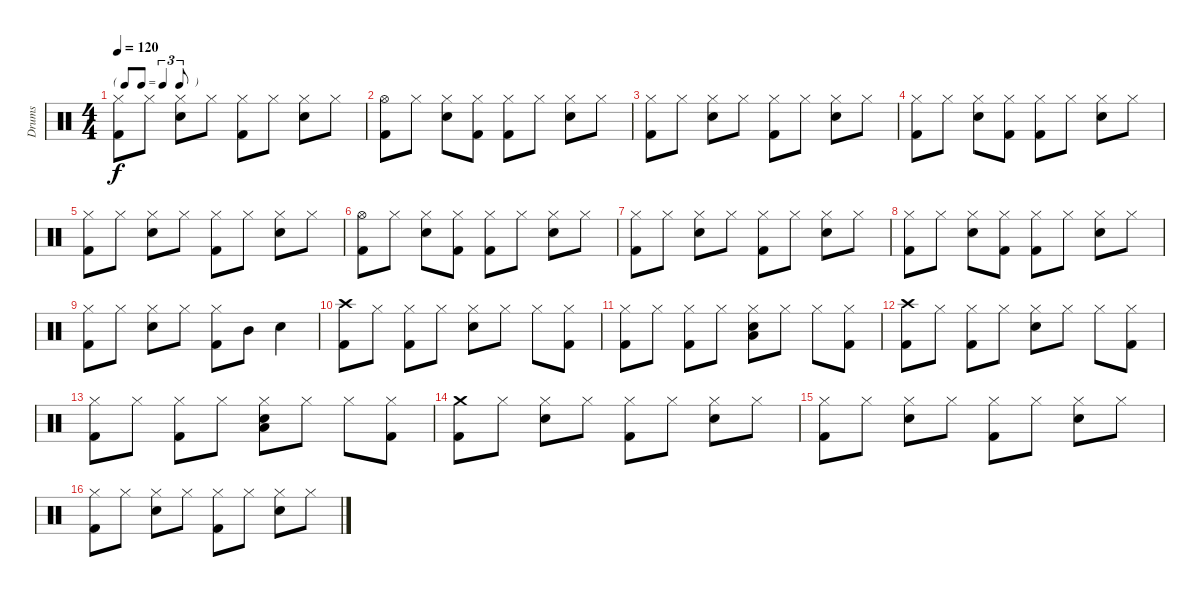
\track ("Drums" "Drums") {instrument percussion}
\staff {score}
\articulation defaults
\ts (4 4)
\tf triplet8th
\tempo 120
\clef neutral
\ks c
("Kick (hit) 2" "Hi-Hat (closed)").8{dy f} "Hi-Hat (closed)".8 ("Snare (hit) 2" "Hi-Hat (closed)").8 "Hi-Hat (closed)".8 ("Kick (hit) 2" "Hi-Hat (closed)").8 "Hi-Hat (closed)".8 ("Snare (hit) 2" "Hi-Hat (closed)").8 "Hi-Hat (closed)".8 |
("Kick (hit) 2" "Hi-Hat (open)").8 "Hi-Hat (closed)".8 ("Snare (hit) 2" "Hi-Hat (closed)").8 ("Kick (hit) 2" "Hi-Hat (closed)").8 ("Kick (hit) 2" "Hi-Hat (closed)").8 "Hi-Hat (closed)".8 ("Snare (hit) 2" "Hi-Hat (closed)").8 "Hi-Hat (closed)".8 |
("Kick (hit) 2" "Hi-Hat (closed)").8 "Hi-Hat (closed)".8 ("Snare (hit) 2" "Hi-Hat (closed)").8 "Hi-Hat (closed)".8 ("Kick (hit) 2" "Hi-Hat (closed)").8 "Hi-Hat (closed)".8 ("Snare (hit) 2" "Hi-Hat (closed)").8 "Hi-Hat (closed)".8 |
("Kick (hit) 2" "Hi-Hat (closed)").8 "Hi-Hat (closed)".8 ("Snare (hit) 2" "Hi-Hat (closed)").8 ("Kick (hit) 2" "Hi-Hat (closed)").8 ("Kick (hit) 2" "Hi-Hat (closed)").8 "Hi-Hat (closed)".8 ("Snare (hit) 2" "Hi-Hat (closed)").8 "Hi-Hat (closed)".8 |
("Kick (hit) 2" "Hi-Hat (closed)").8 "Hi-Hat (closed)".8 ("Snare (hit) 2" "Hi-Hat (closed)").8 "Hi-Hat (closed)".8 ("Kick (hit) 2" "Hi-Hat (closed)").8 "Hi-Hat (closed)".8 ("Snare (hit) 2" "Hi-Hat (closed)").8 "Hi-Hat (closed)".8 |
("Kick (hit) 2" "Hi-Hat (open)").8 "Hi-Hat (closed)".8 ("Snare (hit) 2" "Hi-Hat (closed)").8 ("Kick (hit) 2" "Hi-Hat (closed)").8 ("Kick (hit) 2" "Hi-Hat (closed)").8 "Hi-Hat (closed)".8 ("Snare (hit) 2" "Hi-Hat (closed)").8 "Hi-Hat (closed)".8 |
("Kick (hit) 2" "Hi-Hat (closed)").8 "Hi-Hat (closed)".8 ("Snare (hit) 2" "Hi-Hat (closed)").8 "Hi-Hat (closed)".8 ("Kick (hit) 2" "Hi-Hat (closed)").8 "Hi-Hat (closed)".8 ("Snare (hit) 2" "Hi-Hat (closed)").8 "Hi-Hat (closed)".8 |
("Kick (hit) 2" "Hi-Hat (closed)").8 "Hi-Hat (closed)".8 ("Snare (hit) 2" "Hi-Hat (closed)").8 ("Kick (hit) 2" "Hi-Hat (closed)").8 ("Kick (hit) 2" "Hi-Hat (closed)").8 "Hi-Hat (closed)".8 ("Snare (hit) 2" "Hi-Hat (closed)").8 "Hi-Hat (closed)".8 |
("Kick (hit) 2" "Hi-Hat (closed)").8 "Hi-Hat (closed)".8 ("Snare (hit) 2" "Hi-Hat (closed)").8 "Hi-Hat (closed)".8 ("Kick (hit) 2" "Hi-Hat (closed)").8 "Mid Tom (hit)".8 "Snare (hit) 2".4 |
("Kick (hit) 2" "Crash high (hit)").8 "Hi-Hat (closed)".8 ("Kick (hit) 2" "Hi-Hat (closed)").8 "Hi-Hat (closed)".8 ("Snare (hit) 2" "Hi-Hat (closed)").8 "Hi-Hat (closed)".8 "Hi-Hat (closed)".8 ("Kick (hit) 2" "Hi-Hat (closed)").8 |
("Kick (hit) 2" "Hi-Hat (closed)").8 "Hi-Hat (closed)".8 ("Kick (hit) 2" "Hi-Hat (closed)").8 "Hi-Hat (closed)".8 ("Snare (hit) 2" "Hi-Hat (closed)" "Low Tom (hit)").8 "Hi-Hat (closed)".8 "Hi-Hat (closed)".8 ("Kick (hit) 2" "Hi-Hat (closed)").8 |
("Kick (hit) 2" "Crash high (hit)").8 "Hi-Hat (closed)".8 ("Kick (hit) 2" "Hi-Hat (closed)").8 "Hi-Hat (closed)".8 ("Snare (hit) 2" "Hi-Hat (closed)").8 "Hi-Hat (closed)".8 "Hi-Hat (closed)".8 ("Kick (hit) 2" "Hi-Hat (closed)").8 |
("Kick (hit) 2" "Hi-Hat (closed)").8 "Hi-Hat (closed)".8 ("Kick (hit) 2" "Hi-Hat (closed)").8 "Hi-Hat (closed)".8 ("Snare (hit) 2" "Hi-Hat (closed)" "Low Tom (hit)").8 "Hi-Hat (closed)".8 "Hi-Hat (closed)".8 ("Kick (hit) 2" "Hi-Hat (closed)").8 |
("Kick (hit) 2" "Crash medium (hit)").8 "Hi-Hat (closed)".8 ("Snare (hit) 2" "Hi-Hat (closed)").8 "Hi-Hat (closed)".8 ("Kick (hit) 2" "Hi-Hat (closed)").8 "Hi-Hat (closed)".8 ("Snare (hit) 2" "Hi-Hat (closed)").8 "Hi-Hat (closed)".8 |
("Kick (hit) 2" "Hi-Hat (closed)").8 "Hi-Hat (closed)".8 ("Snare (hit) 2" "Hi-Hat (closed)").8 "Hi-Hat (closed)".8 ("Kick (hit) 2" "Hi-Hat (closed)").8 "Hi-Hat (closed)".8 ("Snare (hit) 2" "Hi-Hat (closed)").8 "Hi-Hat (closed)".8 |
("Kick (hit) 2" "Hi-Hat (closed)").8 "Hi-Hat (closed)".8 ("Snare (hit) 2" "Hi-Hat (closed)").8 "Hi-Hat (closed)".8 ("Kick (hit) 2" "Hi-Hat (closed)").8 "Hi-Hat (closed)".8 ("Snare (hit) 2" "Hi-Hat (closed)").8 "Hi-Hat (closed)".8
